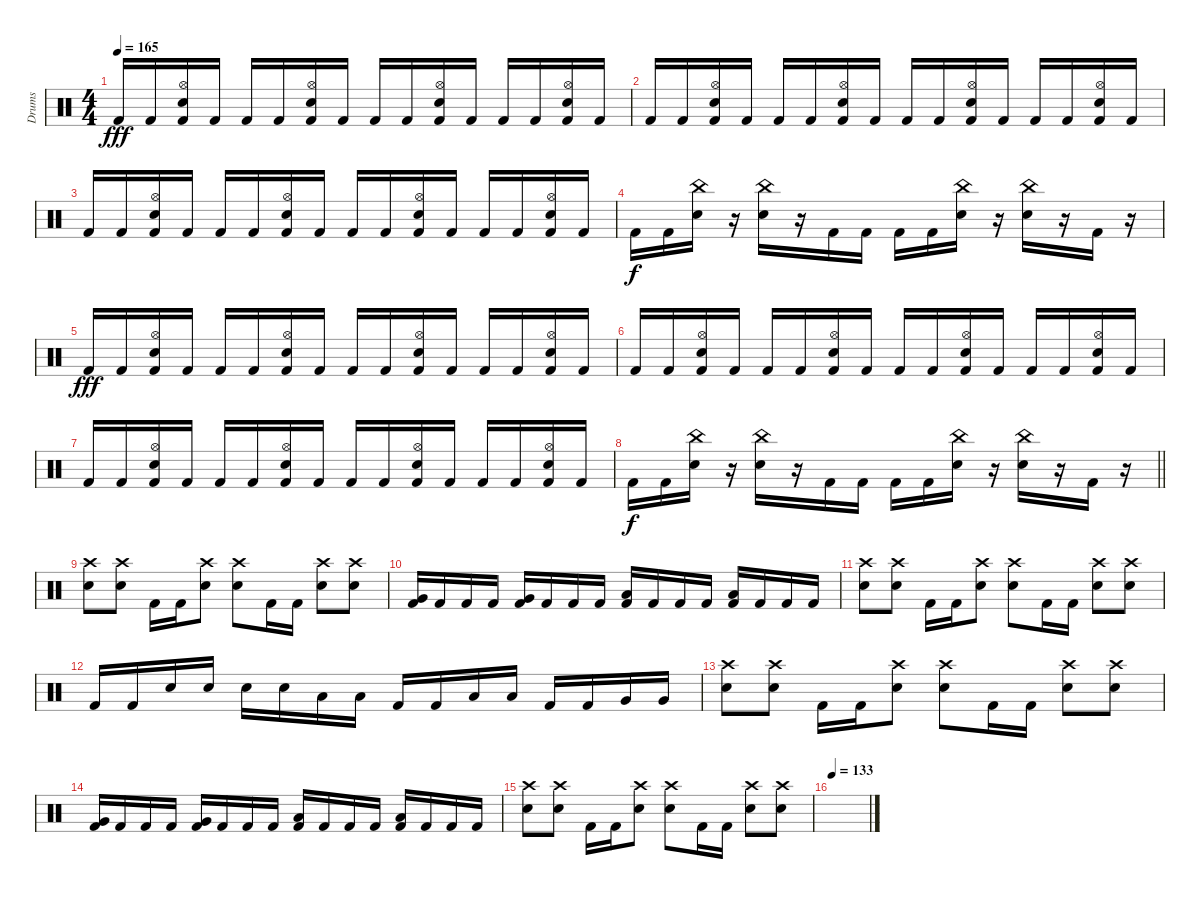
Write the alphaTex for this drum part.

\track ("Drums" "Drums") {instrument percussion}
\staff {score}
\articulation defaults
\ts (4 4)
\tempo 165
\clef neutral
\ks c "Kick (hit) 2".16{dy fff} "Kick (hit) 2".16
("Hi-Hat (open)" "Electric Snare (hit)" "Kick (hit) 2").16 "Kick (hit) 2".16 "Kick (hit) 2".16 "Kick (hit) 2".16 ("Hi-Hat (open)" "Electric Snare (hit)" "Kick (hit) 2").16 "Kick (hit) 2".16 "Kick (hit) 2".16 "Kick (hit) 2".16 ("Hi-Hat (open)" "Electric Snare (hit)" "Kick (hit) 2").16 "Kick (hit) 2".16 "Kick (hit) 2".16 "Kick (hit) 2".16 ("Hi-Hat (open)" "Electric Snare (hit)" "Kick (hit) 2").16 "Kick (hit) 2".16 |
"Kick (hit) 2".16 "Kick (hit) 2".16 ("Hi-Hat (open)" "Electric Snare (hit)" "Kick (hit) 2").16 "Kick (hit) 2".16 "Kick (hit) 2".16 "Kick (hit) 2".16 ("Hi-Hat (open)" "Electric Snare (hit)" "Kick (hit) 2").16 "Kick (hit) 2".16 "Kick (hit) 2".16 "Kick (hit) 2".16 ("Hi-Hat (open)" "Electric Snare (hit)" "Kick (hit) 2").16 "Kick (hit) 2".16 "Kick (hit) 2".16 "Kick (hit) 2".16 ("Hi-Hat (open)" "Electric Snare (hit)" "Kick (hit) 2").16 "Kick (hit) 2".16 |
"Kick (hit) 2".16 "Kick (hit) 2".16 ("Hi-Hat (open)" "Electric Snare (hit)" "Kick (hit) 2").16 "Kick (hit) 2".16 "Kick (hit) 2".16 "Kick (hit) 2".16 ("Hi-Hat (open)" "Electric Snare (hit)" "Kick (hit) 2").16 "Kick (hit) 2".16 "Kick (hit) 2".16 "Kick (hit) 2".16 ("Hi-Hat (open)" "Electric Snare (hit)" "Kick (hit) 2").16 "Kick (hit) 2".16 "Kick (hit) 2".16 "Kick (hit) 2".16 ("Hi-Hat (open)" "Electric Snare (hit)" "Kick (hit) 2").16 "Kick (hit) 2".16 |
"Kick (hit) 2".16{dy f} "Kick (hit) 2".16 ("China (hit)" "Electric Snare (hit)").16 r.16 ("China (hit)" "Electric Snare (hit)").16 r.16 "Kick (hit) 2".16 "Kick (hit) 2".16 "Kick (hit) 2".16 "Kick (hit) 2".16 ("China (hit)" "Electric Snare (hit)").16 r.16 ("China (hit)" "Electric Snare (hit)").16 r.16 "Kick (hit) 2".16 r.16 |
"Kick (hit) 2".16{dy fff} "Kick (hit) 2".16 ("Hi-Hat (open)" "Electric Snare (hit)" "Kick (hit) 2").16 "Kick (hit) 2".16 "Kick (hit) 2".16 "Kick (hit) 2".16 ("Hi-Hat (open)" "Electric Snare (hit)" "Kick (hit) 2").16 "Kick (hit) 2".16 "Kick (hit) 2".16 "Kick (hit) 2".16 ("Hi-Hat (open)" "Electric Snare (hit)" "Kick (hit) 2").16 "Kick (hit) 2".16 "Kick (hit) 2".16 "Kick (hit) 2".16 ("Hi-Hat (open)" "Electric Snare (hit)" "Kick (hit) 2").16 "Kick (hit) 2".16 |
"Kick (hit) 2".16 "Kick (hit) 2".16 ("Hi-Hat (open)" "Electric Snare (hit)" "Kick (hit) 2").16 "Kick (hit) 2".16 "Kick (hit) 2".16 "Kick (hit) 2".16 ("Hi-Hat (open)" "Electric Snare (hit)" "Kick (hit) 2").16 "Kick (hit) 2".16 "Kick (hit) 2".16 "Kick (hit) 2".16 ("Hi-Hat (open)" "Electric Snare (hit)" "Kick (hit) 2").16 "Kick (hit) 2".16 "Kick (hit) 2".16 "Kick (hit) 2".16 ("Hi-Hat (open)" "Electric Snare (hit)" "Kick (hit) 2").16 "Kick (hit) 2".16 |
"Kick (hit) 2".16 "Kick (hit) 2".16 ("Hi-Hat (open)" "Electric Snare (hit)" "Kick (hit) 2").16 "Kick (hit) 2".16 "Kick (hit) 2".16 "Kick (hit) 2".16 ("Hi-Hat (open)" "Electric Snare (hit)" "Kick (hit) 2").16 "Kick (hit) 2".16 "Kick (hit) 2".16 "Kick (hit) 2".16 ("Hi-Hat (open)" "Electric Snare (hit)" "Kick (hit) 2").16 "Kick (hit) 2".16 "Kick (hit) 2".16 "Kick (hit) 2".16 ("Hi-Hat (open)" "Electric Snare (hit)" "Kick (hit) 2").16 "Kick (hit) 2".16 |
\barLineRight lightlight "Kick (hit) 2".16{dy f} "Kick (hit) 2".16
("China (hit)" "Electric Snare (hit)").16 r.16 ("China (hit)" "Electric Snare (hit)").16 r.16 "Kick (hit) 2".16 "Kick (hit) 2".16 "Kick (hit) 2".16 "Kick (hit) 2".16 ("China (hit)" "Electric Snare (hit)").16 r.16 ("China (hit)" "Electric Snare (hit)").16 r.16 "Kick (hit) 2".16 r.16 |
("Crash high (hit)" "Electric Snare (hit)").8 ("Crash high (hit)" "Electric Snare (hit)").8 "Kick (hit) 2".16 "Kick (hit) 2".16 ("Crash high (hit)" "Electric Snare (hit)").8 ("Crash high (hit)" "Electric Snare (hit)").8 "Kick (hit) 2".16 "Kick (hit) 2".16 ("Crash high (hit)" "Electric Snare (hit)").8 ("Crash high (hit)" "Electric Snare (hit)").8 |
("Very Low Tom (hit)" "Kick (hit) 2").16 "Kick (hit) 2".16 "Kick (hit) 2".16 "Kick (hit) 2".16 ("Very Low Tom (hit)" "Kick (hit) 2").16 "Kick (hit) 2".16 "Kick (hit) 2".16 "Kick (hit) 2".16 ("Low Floor Tom (hit)" "Kick (hit) 2").16 "Kick (hit) 2".16 "Kick (hit) 2".16 "Kick (hit) 2".16 ("Low Floor Tom (hit)" "Kick (hit) 2").16 "Kick (hit) 2".16 "Kick (hit) 2".16 "Kick (hit) 2".16 |
("Crash high (hit)" "Electric Snare (hit)").8 ("Crash high (hit)" "Electric Snare (hit)").8 "Kick (hit) 2".16 "Kick (hit) 2".16 ("Crash high (hit)" "Electric Snare (hit)").8 ("Crash high (hit)" "Electric Snare (hit)").8 "Kick (hit) 2".16 "Kick (hit) 2".16 ("Crash high (hit)" "Electric Snare (hit)").8 ("Crash high (hit)" "Electric Snare (hit)").8 |
"Kick (hit) 2".16 "Kick (hit) 2".16 "Electric Snare (hit)".16 "Electric Snare (hit)".16 "Electric Snare (hit)".16 "Electric Snare (hit)".16 "Low Tom (hit)".16 "Low Tom (hit)".16 "Kick (hit) 2".16 "Kick (hit) 2".16 "Low Tom (hit)".16 "Low Tom (hit)".16 "Kick (hit) 2".16 "Kick (hit) 2".16 "Very Low Tom (hit)".16 "Very Low Tom (hit)".16 |
("Crash high (hit)" "Electric Snare (hit)").8 ("Crash high (hit)" "Electric Snare (hit)").8 "Kick (hit) 2".16 "Kick (hit) 2".16 ("Crash high (hit)" "Electric Snare (hit)").8 ("Crash high (hit)" "Electric Snare (hit)").8 "Kick (hit) 2".16 "Kick (hit) 2".16 ("Crash high (hit)" "Electric Snare (hit)").8 ("Crash high (hit)" "Electric Snare (hit)").8 |
("Very Low Tom (hit)" "Kick (hit) 2").16 "Kick (hit) 2".16 "Kick (hit) 2".16 "Kick (hit) 2".16 ("Very Low Tom (hit)" "Kick (hit) 2").16 "Kick (hit) 2".16 "Kick (hit) 2".16 "Kick (hit) 2".16 ("Low Floor Tom (hit)" "Kick (hit) 2").16 "Kick (hit) 2".16 "Kick (hit) 2".16 "Kick (hit) 2".16 ("Low Floor Tom (hit)" "Kick (hit) 2").16 "Kick (hit) 2".16 "Kick (hit) 2".16 "Kick (hit) 2".16 |
("Crash high (hit)" "Electric Snare (hit)").8 ("Crash high (hit)" "Electric Snare (hit)").8 "Kick (hit) 2".16 "Kick (hit) 2".16 ("Crash high (hit)" "Electric Snare (hit)").8 ("Crash high (hit)" "Electric Snare (hit)").8 "Kick (hit) 2".16 "Kick (hit) 2".16 ("Crash high (hit)" "Electric Snare (hit)").8 ("Crash high (hit)" "Electric Snare (hit)").8 |
\tempo 133
